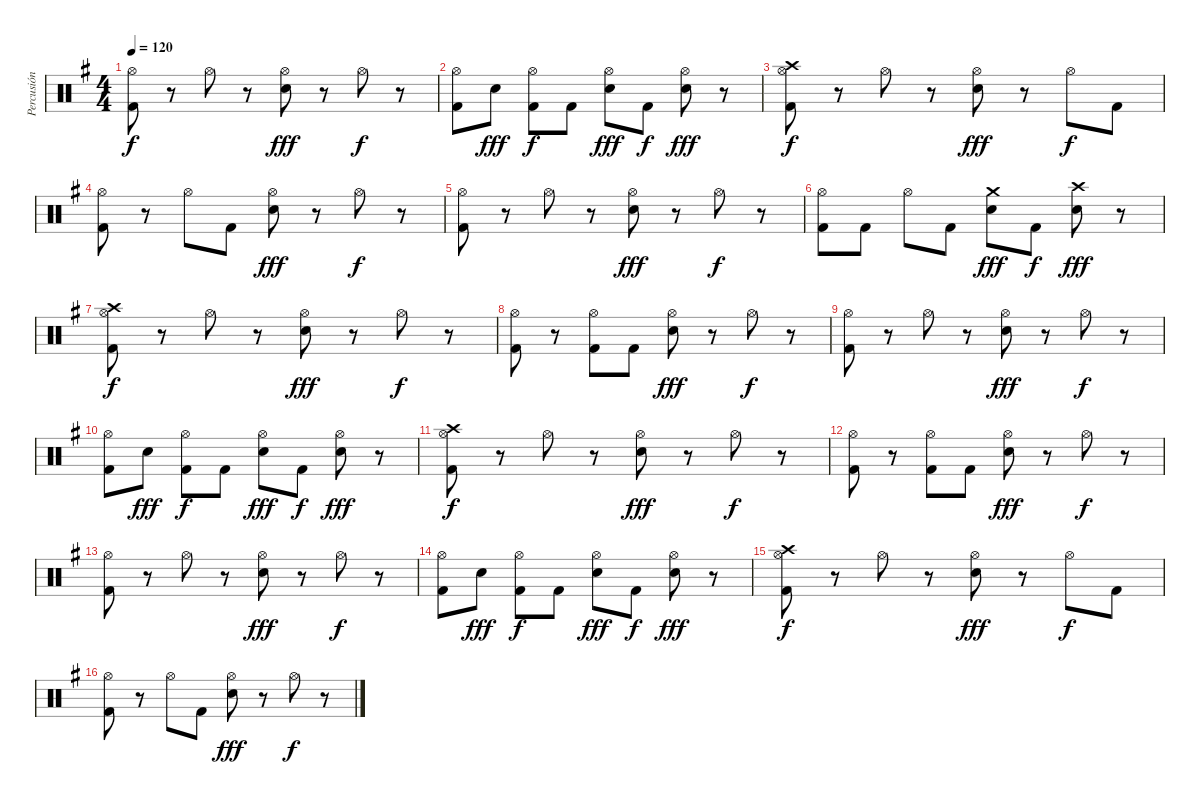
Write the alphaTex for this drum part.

\track ("Percusión" "Percusión") {instrument percussion}
\staff {score}
\articulation defaults
\ts (4 4)
\tempo 120
\clef neutral
\ks g
("Hi-Hat (open)" "Kick (hit) 2").8{dy f} r.8 "Hi-Hat (open)".8 r.8 ("Hi-Hat (open)" "Electric Snare (hit)").8{dy fff} r.8 "Hi-Hat (open)".8{dy f} r.8 |
("Hi-Hat (open)" "Kick (hit) 2").8 "Electric Snare (hit)".8{dy fff} ("Hi-Hat (open)" "Kick (hit) 2").8{dy f} "Kick (hit) 2".8 ("Hi-Hat (open)" "Electric Snare (hit)").8{dy fff} "Kick (hit) 2".8{dy f} ("Hi-Hat (open)" "Electric Snare (hit)").8{dy fff} r.8 |
("Crash high (hit)" "Hi-Hat (open)" "Kick (hit) 2").8{dy f} r.8 "Hi-Hat (open)".8 r.8 ("Hi-Hat (open)" "Electric Snare (hit)").8{dy fff} r.8 "Hi-Hat (open)".8{dy f} "Kick (hit) 2".8 |
("Hi-Hat (open)" "Kick (hit) 2").8 r.8 "Hi-Hat (open)".8 "Kick (hit) 2".8 ("Hi-Hat (open)" "Electric Snare (hit)").8{dy fff} r.8 "Hi-Hat (open)".8{dy f} r.8 |
("Hi-Hat (open)" "Kick (hit) 2").8 r.8 "Hi-Hat (open)".8 r.8 ("Hi-Hat (open)" "Electric Snare (hit)").8{dy fff} r.8 "Hi-Hat (open)".8{dy f} r.8 |
("Hi-Hat (open)" "Kick (hit) 2").8 "Kick (hit) 2".8 "Hi-Hat (open)".8 "Kick (hit) 2".8 ("Crash medium (hit)" "Electric Snare (hit)").8{dy fff} "Kick (hit) 2".8{dy f} ("Crash high (hit)" "Electric Snare (hit)").8{dy fff} r.8 |
("Crash high (hit)" "Hi-Hat (open)" "Kick (hit) 2").8{dy f} r.8 "Hi-Hat (open)".8 r.8 ("Hi-Hat (open)" "Electric Snare (hit)").8{dy fff} r.8 "Hi-Hat (open)".8{dy f} r.8 |
("Hi-Hat (open)" "Kick (hit) 2").8 r.8 ("Hi-Hat (open)" "Kick (hit) 2").8 "Kick (hit) 2".8 ("Hi-Hat (open)" "Electric Snare (hit)").8{dy fff} r.8 "Hi-Hat (open)".8{dy f} r.8 |
("Hi-Hat (open)" "Kick (hit) 2").8 r.8 "Hi-Hat (open)".8 r.8 ("Hi-Hat (open)" "Electric Snare (hit)").8{dy fff} r.8 "Hi-Hat (open)".8{dy f} r.8 |
("Hi-Hat (open)" "Kick (hit) 2").8 "Electric Snare (hit)".8{dy fff} ("Hi-Hat (open)" "Kick (hit) 2").8{dy f} "Kick (hit) 2".8 ("Hi-Hat (open)" "Electric Snare (hit)").8{dy fff} "Kick (hit) 2".8{dy f} ("Hi-Hat (open)" "Electric Snare (hit)").8{dy fff} r.8 |
("Crash high (hit)" "Hi-Hat (open)" "Kick (hit) 2").8{dy f} r.8 "Hi-Hat (open)".8 r.8 ("Hi-Hat (open)" "Electric Snare (hit)").8{dy fff} r.8 "Hi-Hat (open)".8{dy f} r.8 |
("Hi-Hat (open)" "Kick (hit) 2").8 r.8 ("Hi-Hat (open)" "Kick (hit) 2").8 "Kick (hit) 2".8 ("Hi-Hat (open)" "Electric Snare (hit)").8{dy fff} r.8 "Hi-Hat (open)".8{dy f} r.8 |
("Hi-Hat (open)" "Kick (hit) 2").8 r.8 "Hi-Hat (open)".8 r.8 ("Hi-Hat (open)" "Electric Snare (hit)").8{dy fff} r.8 "Hi-Hat (open)".8{dy f} r.8 |
("Hi-Hat (open)" "Kick (hit) 2").8 "Electric Snare (hit)".8{dy fff} ("Hi-Hat (open)" "Kick (hit) 2").8{dy f} "Kick (hit) 2".8 ("Hi-Hat (open)" "Electric Snare (hit)").8{dy fff} "Kick (hit) 2".8{dy f} ("Hi-Hat (open)" "Electric Snare (hit)").8{dy fff} r.8 |
("Crash high (hit)" "Hi-Hat (open)" "Kick (hit) 2").8{dy f} r.8 "Hi-Hat (open)".8 r.8 ("Hi-Hat (open)" "Electric Snare (hit)").8{dy fff} r.8 "Hi-Hat (open)".8{dy f} "Kick (hit) 2".8 |
("Hi-Hat (open)" "Kick (hit) 2").8 r.8 "Hi-Hat (open)".8 "Kick (hit) 2".8 ("Hi-Hat (open)" "Electric Snare (hit)").8{dy fff} r.8 "Hi-Hat (open)".8{dy f} r.8
